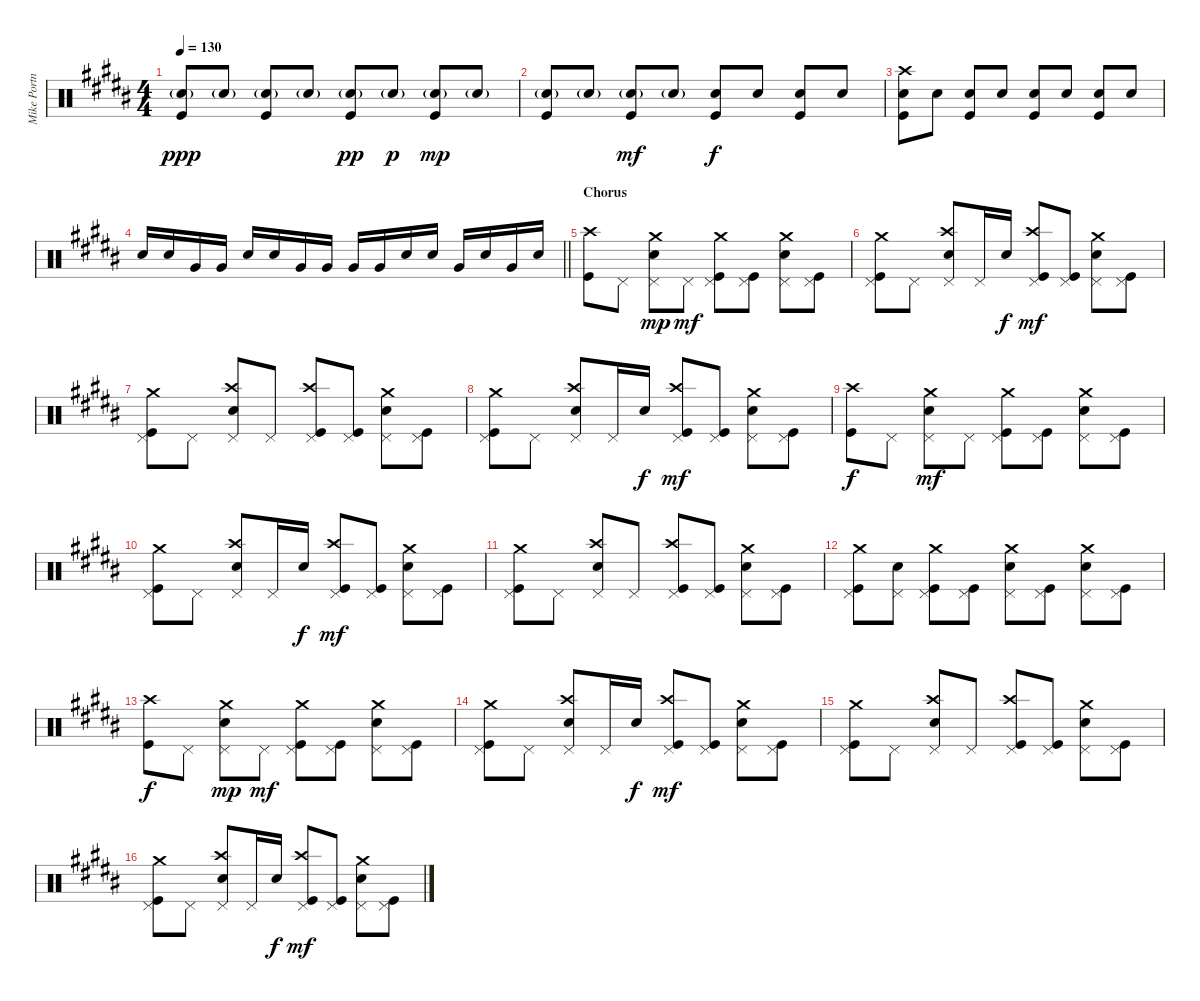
\track ("Mike Portnoy" "Mike Portn") {instrument percussion}
\staff {score}
\articulation defaults
\ts (4 4)
\tempo 130
\clef neutral
\ks g#minor
("Electric Snare (hit)"{g} "Kick (hit)").8{dy ppp} "Electric Snare (hit)"{g}.8 ("Electric Snare (hit)"{g} "Kick (hit)").8 "Electric Snare (hit)"{g}.8 ("Electric Snare (hit)"{g} "Kick (hit)").8{dy pp} "Electric Snare (hit)"{g}.8{dy p} ("Electric Snare (hit)"{g} "Kick (hit)").8{dy mp} "Electric Snare (hit)"{g}.8 |
("Electric Snare (hit)"{g} "Kick (hit)").8 "Electric Snare (hit)"{g}.8 ("Electric Snare (hit)"{g} "Kick (hit)").8{dy mf} "Electric Snare (hit)"{g}.8 ("Electric Snare (hit)" "Kick (hit)").8{dy f} "Electric Snare (hit)".8 ("Electric Snare (hit)" "Kick (hit)").8 "Electric Snare (hit)".8 |
("Crash high (hit)" "Electric Snare (hit)" "Kick (hit)").8 "Electric Snare (hit)".8 ("Electric Snare (hit)" "Kick (hit)").8 "Electric Snare (hit)".8 ("Electric Snare (hit)" "Kick (hit)").8 "Electric Snare (hit)".8 ("Electric Snare (hit)" "Kick (hit)").8 "Electric Snare (hit)".8 |
\barLineRight lightlight "Electric Snare (hit)".16 "Electric Snare (hit)".16 "Very Low Tom (hit)".16 "Very Low Tom (hit)".16 "Electric Snare (hit)".16 "Electric Snare (hit)".16 "Very Low Tom (hit)".16 "Very Low Tom (hit)".16 "Very Low Tom (hit)".16 "Very Low Tom (hit)".16 "Electric Snare (hit)".16 "Electric Snare (hit)".16 "Very Low Tom (hit)".16 "Electric Snare (hit)".16 "Very Low Tom (hit)".16 "Electric Snare (hit)".16
|
\section ("" "Chorus")
("Crash high (hit)" "Kick (hit)").8 "Pedal Hi-Hat (hit)".8 ("Crash medium (hit)" "Pedal Hi-Hat (hit)" "Electric Snare (hit)").8{dy mp} "Pedal Hi-Hat (hit)".8{dy mf} ("Crash medium (hit)" "Pedal Hi-Hat (hit)" "Kick (hit)").8 ("Pedal Hi-Hat (hit)" "Kick (hit)").8 ("Crash medium (hit)" "Pedal Hi-Hat (hit)" "Electric Snare (hit)").8 ("Pedal Hi-Hat (hit)" "Kick (hit)").8 |
("Crash medium (hit)" "Pedal Hi-Hat (hit)" "Kick (hit)").8 "Pedal Hi-Hat (hit)".8 ("Crash high (hit)" "Pedal Hi-Hat (hit)" "Electric Snare (hit)").8 "Pedal Hi-Hat (hit)".16 "Electric Snare (hit)".16{dy f} ("Crash high (hit)" "Pedal Hi-Hat (hit)" "Kick (hit)").8{dy mf} ("Pedal Hi-Hat (hit)" "Kick (hit)").8 ("Crash medium (hit)" "Pedal Hi-Hat (hit)" "Electric Snare (hit)").8 ("Pedal Hi-Hat (hit)" "Kick (hit)").8 |
("Crash medium (hit)" "Pedal Hi-Hat (hit)" "Kick (hit)").8 "Pedal Hi-Hat (hit)".8 ("Crash high (hit)" "Pedal Hi-Hat (hit)" "Electric Snare (hit)").8 "Pedal Hi-Hat (hit)".8 ("Crash high (hit)" "Pedal Hi-Hat (hit)" "Kick (hit)").8 ("Pedal Hi-Hat (hit)" "Kick (hit)").8 ("Crash medium (hit)" "Pedal Hi-Hat (hit)" "Electric Snare (hit)").8 ("Pedal Hi-Hat (hit)" "Kick (hit)").8 |
("Crash medium (hit)" "Pedal Hi-Hat (hit)" "Kick (hit)").8 "Pedal Hi-Hat (hit)".8 ("Crash high (hit)" "Pedal Hi-Hat (hit)" "Electric Snare (hit)").8 "Pedal Hi-Hat (hit)".16 "Electric Snare (hit)".16{dy f} ("Crash high (hit)" "Pedal Hi-Hat (hit)" "Kick (hit)").8{dy mf} ("Pedal Hi-Hat (hit)" "Kick (hit)").8 ("Crash medium (hit)" "Pedal Hi-Hat (hit)" "Electric Snare (hit)").8 ("Pedal Hi-Hat (hit)" "Kick (hit)").8 |
("Crash high (hit)" "Kick (hit)").8{dy f} "Pedal Hi-Hat (hit)".8 ("Crash medium (hit)" "Pedal Hi-Hat (hit)" "Electric Snare (hit)").8{dy mf} "Pedal Hi-Hat (hit)".8 ("Crash medium (hit)" "Pedal Hi-Hat (hit)" "Kick (hit)").8 ("Pedal Hi-Hat (hit)" "Kick (hit)").8 ("Crash medium (hit)" "Pedal Hi-Hat (hit)" "Electric Snare (hit)").8 ("Pedal Hi-Hat (hit)" "Kick (hit)").8 |
("Crash medium (hit)" "Pedal Hi-Hat (hit)" "Kick (hit)").8 "Pedal Hi-Hat (hit)".8 ("Crash high (hit)" "Pedal Hi-Hat (hit)" "Electric Snare (hit)").8 "Pedal Hi-Hat (hit)".16 "Electric Snare (hit)".16{dy f} ("Crash high (hit)" "Pedal Hi-Hat (hit)" "Kick (hit)").8{dy mf} ("Pedal Hi-Hat (hit)" "Kick (hit)").8 ("Crash medium (hit)" "Pedal Hi-Hat (hit)" "Electric Snare (hit)").8 ("Pedal Hi-Hat (hit)" "Kick (hit)").8 |
("Crash medium (hit)" "Pedal Hi-Hat (hit)" "Kick (hit)").8 "Pedal Hi-Hat (hit)".8 ("Crash high (hit)" "Pedal Hi-Hat (hit)" "Electric Snare (hit)").8 "Pedal Hi-Hat (hit)".8 ("Crash high (hit)" "Pedal Hi-Hat (hit)" "Kick (hit)").8 ("Pedal Hi-Hat (hit)" "Kick (hit)").8 ("Crash medium (hit)" "Pedal Hi-Hat (hit)" "Electric Snare (hit)").8 ("Pedal Hi-Hat (hit)" "Kick (hit)").8 |
("Crash medium (hit)" "Pedal Hi-Hat (hit)" "Kick (hit)").8 ("Pedal Hi-Hat (hit)" "Electric Snare (hit)").8 ("Crash medium (hit)" "Pedal Hi-Hat (hit)" "Kick (hit)").8 ("Pedal Hi-Hat (hit)" "Kick (hit)").8 ("Crash medium (hit)" "Pedal Hi-Hat (hit)" "Electric Snare (hit)").8 ("Pedal Hi-Hat (hit)" "Kick (hit)").8 ("Crash medium (hit)" "Pedal Hi-Hat (hit)" "Electric Snare (hit)").8 ("Pedal Hi-Hat (hit)" "Kick (hit)").8 |
("Crash high (hit)" "Kick (hit)").8{dy f} "Pedal Hi-Hat (hit)".8 ("Crash medium (hit)" "Pedal Hi-Hat (hit)" "Electric Snare (hit)").8{dy mp} "Pedal Hi-Hat (hit)".8{dy mf} ("Crash medium (hit)" "Pedal Hi-Hat (hit)" "Kick (hit)").8 ("Pedal Hi-Hat (hit)" "Kick (hit)").8 ("Crash medium (hit)" "Pedal Hi-Hat (hit)" "Electric Snare (hit)").8 ("Pedal Hi-Hat (hit)" "Kick (hit)").8 |
("Crash medium (hit)" "Pedal Hi-Hat (hit)" "Kick (hit)").8 "Pedal Hi-Hat (hit)".8 ("Crash high (hit)" "Pedal Hi-Hat (hit)" "Electric Snare (hit)").8 "Pedal Hi-Hat (hit)".16 "Electric Snare (hit)".16{dy f} ("Crash high (hit)" "Pedal Hi-Hat (hit)" "Kick (hit)").8{dy mf} ("Pedal Hi-Hat (hit)" "Kick (hit)").8 ("Crash medium (hit)" "Pedal Hi-Hat (hit)" "Electric Snare (hit)").8 ("Pedal Hi-Hat (hit)" "Kick (hit)").8 |
("Crash medium (hit)" "Pedal Hi-Hat (hit)" "Kick (hit)").8 "Pedal Hi-Hat (hit)".8 ("Crash high (hit)" "Pedal Hi-Hat (hit)" "Electric Snare (hit)").8 "Pedal Hi-Hat (hit)".8 ("Crash high (hit)" "Pedal Hi-Hat (hit)" "Kick (hit)").8 ("Pedal Hi-Hat (hit)" "Kick (hit)").8 ("Crash medium (hit)" "Pedal Hi-Hat (hit)" "Electric Snare (hit)").8 ("Pedal Hi-Hat (hit)" "Kick (hit)").8 |
("Crash medium (hit)" "Pedal Hi-Hat (hit)" "Kick (hit)").8 "Pedal Hi-Hat (hit)".8 ("Crash high (hit)" "Pedal Hi-Hat (hit)" "Electric Snare (hit)").8 "Pedal Hi-Hat (hit)".16 "Electric Snare (hit)".16{dy f} ("Crash high (hit)" "Pedal Hi-Hat (hit)" "Kick (hit)").8{dy mf} ("Pedal Hi-Hat (hit)" "Kick (hit)").8 ("Crash medium (hit)" "Pedal Hi-Hat (hit)" "Electric Snare (hit)").8 ("Pedal Hi-Hat (hit)" "Kick (hit)").8
